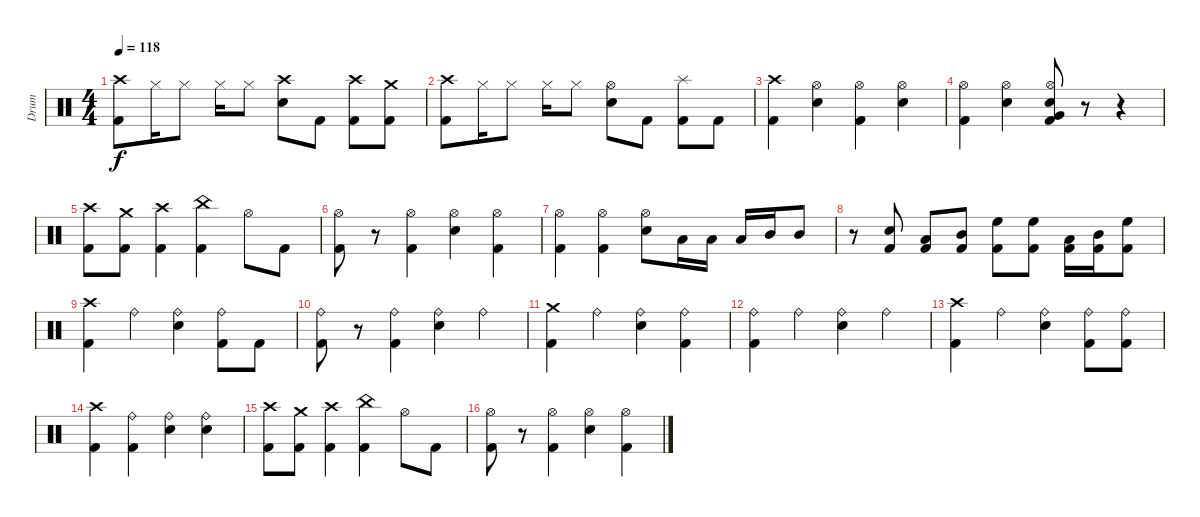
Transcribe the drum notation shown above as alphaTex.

\track ("Drum" "Drum") {instrument percussion}
\staff {score}
\articulation defaults
\ts (4 4)
\tempo 118
\clef neutral
\ks c
("Crash high (hit)" "Kick (hit) 2").8{dy f} "Hi-Hat (closed)".16 "Hi-Hat (closed)".8 "Hi-Hat (closed)".16 "Hi-Hat (closed)".8 ("Electric Snare (hit)" "Crash high (hit)").8 "Kick (hit) 2".8 ("Crash high (hit)" "Kick (hit) 2").8 ("Crash medium (hit)" "Kick (hit) 2").8 |
("Crash high (hit)" "Kick (hit) 2").8 "Hi-Hat (closed)".16 "Hi-Hat (closed)".8 "Hi-Hat (closed)".16 "Hi-Hat (closed)".8 ("Electric Snare (hit)" "Hi-Hat (open)").8 "Kick (hit) 2".8 ("Splash (hit)" "Kick (hit) 2").8 "Kick (hit) 2".8 |
("Crash high (hit)" "Kick (hit) 2").4 ("Electric Snare (hit)" "Hi-Hat (open)").4 ("Kick (hit) 2" "Hi-Hat (open)").4 ("Electric Snare (hit)" "Hi-Hat (open)").4 |
("Hi-Hat (open)" "Kick (hit) 2").4 ("Electric Snare (hit)" "Hi-Hat (open)").4 ("Kick (hit) 2" "Very Low Tom (hit)" "Electric Snare (hit)" "Hi-Hat (open)").8 r.8 r.4 |
("Crash high (hit)" "Kick (hit) 2").8 ("Crash medium (hit)" "Kick (hit) 2").8 ("Crash high (hit)" "Kick (hit) 2").4 ("China (hit)" "Kick (hit) 2").4 "Hi-Hat (open)".8 "Kick (hit) 2".8 |
("Hi-Hat (open)" "Kick (hit) 2").8 r.8 ("Hi-Hat (open)" "Kick (hit) 2").4 ("Hi-Hat (open)" "Electric Snare (hit)").4 ("Hi-Hat (open)" "Kick (hit) 2").4 |
("Hi-Hat (open)" "Kick (hit) 2").4 ("Hi-Hat (open)" "Kick (hit) 2").4 ("Hi-Hat (open)" "Electric Snare (hit)").8 "Low Tom (hit)".16 "Low Tom (hit)".16 "Low Tom (hit)".16 "Mid Tom (hit)".16 "Mid Tom (hit)".8 |
r.8 ("Kick (hit) 2" "Electric Snare (hit)").8 ("Kick (hit) 2" "Low Tom (hit)").8 ("Kick (hit) 2" "Mid Tom (hit)").8 ("Kick (hit) 2" "High Floor Tom (hit)").8 ("Kick (hit) 2" "High Floor Tom (hit)").8 ("Kick (hit) 2" "Low Tom (hit)").16 ("Kick (hit) 2" "Mid Tom (hit)").16 ("Kick (hit) 2" "High Floor Tom (hit)").8 |
("Crash high (hit)" "Kick (hit) 2").4 "Ride (bell)".4 ("Ride (bell)" "Electric Snare (hit)").4 ("Ride (bell)" "Kick (hit) 2").8 "Kick (hit) 2".8 |
("Ride (bell)" "Kick (hit) 2").8 r.8 ("Ride (bell)" "Kick (hit) 2").4 ("Ride (bell)" "Electric Snare (hit)").4 "Ride (bell)".4 |
("Crash medium (hit)" "Kick (hit) 2").4 "Ride (bell)".4 ("Ride (bell)" "Electric Snare (hit)").4 ("Ride (bell)" "Kick (hit) 2").4 |
("Ride (bell)" "Kick (hit) 2").4 "Ride (bell)".4 ("Ride (bell)" "Electric Snare (hit)").4 "Ride (bell)".4 |
("Crash high (hit)" "Kick (hit) 2").4 "Ride (bell)".4 ("Ride (bell)" "Electric Snare (hit)").4 ("Ride (bell)" "Kick (hit) 2").8 ("Ride (bell)" "Kick (hit) 2").8 |
("Crash high (hit)" "Kick (hit) 2").4 ("Ride (bell)" "Kick (hit) 2").4 ("Ride (bell)" "Electric Snare (hit)").4 ("Ride (bell)" "Electric Snare (hit)").4 |
("Crash high (hit)" "Kick (hit) 2").8 ("Crash medium (hit)" "Kick (hit) 2").8 ("Crash high (hit)" "Kick (hit) 2").4 ("China (hit)" "Kick (hit) 2").4 "Hi-Hat (open)".8 "Kick (hit) 2".8 |
("Hi-Hat (open)" "Kick (hit) 2").8 r.8 ("Hi-Hat (open)" "Kick (hit) 2").4 ("Hi-Hat (open)" "Electric Snare (hit)").4 ("Hi-Hat (open)" "Kick (hit) 2").4
